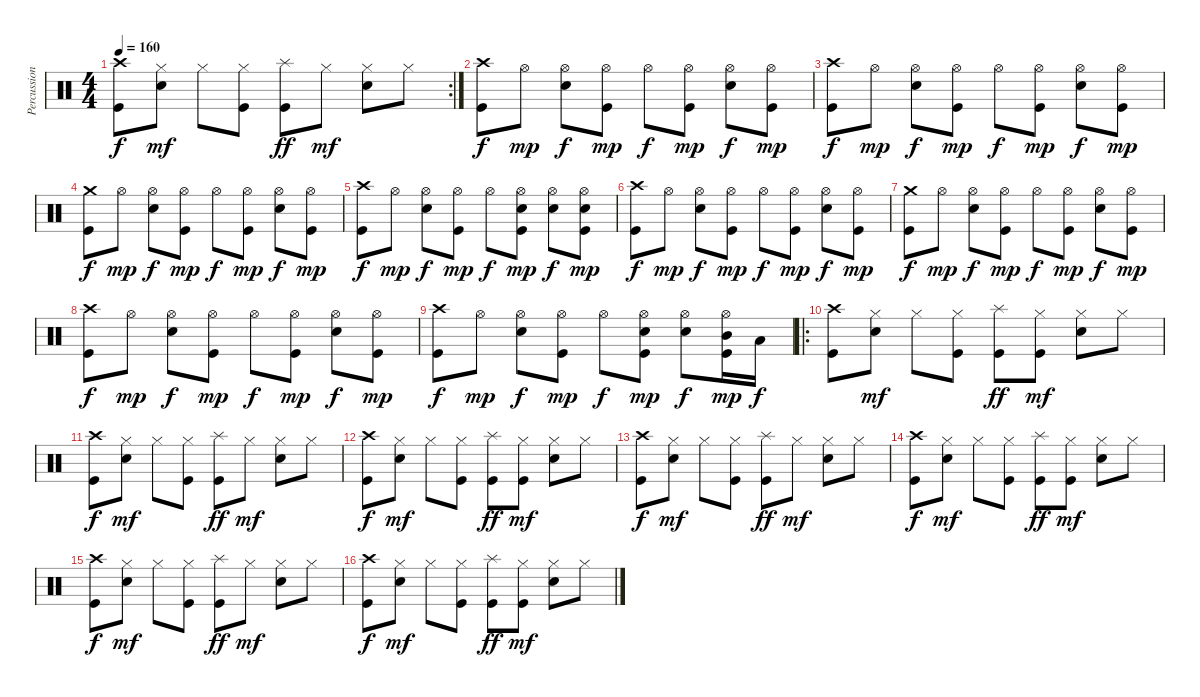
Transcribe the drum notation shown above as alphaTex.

\track ("Percussion" "Percussion") {instrument percussion}
\staff {score}
\articulation defaults
\rc 2
\ts (4 4)
\tempo 160
\clef neutral
\ks c
("Crash high (hit)" "Kick (hit)").8{dy f} ("Hi-Hat (closed)" "Electric Snare (hit)").8{dy mf} "Hi-Hat (closed)".8 ("Hi-Hat (closed)" "Kick (hit)").8 ("Splash (hit)" "Kick (hit)").8{dy ff} "Hi-Hat (closed)".8{dy mf} ("Hi-Hat (closed)" "Electric Snare (hit)").8 "Hi-Hat (closed)".8 |
("Crash high (hit)" "Kick (hit)").8{dy f} "Hi-Hat (open)".8{dy mp} ("Hi-Hat (open)" "Electric Snare (hit)").8{dy f} ("Hi-Hat (open)" "Kick (hit)").8{dy mp} "Hi-Hat (open)".8{dy f} ("Hi-Hat (open)" "Kick (hit)").8{dy mp} ("Hi-Hat (open)" "Electric Snare (hit)").8{dy f} ("Hi-Hat (open)" "Kick (hit)").8{dy mp} |
("Crash high (hit)" "Kick (hit)").8{dy f} "Hi-Hat (open)".8{dy mp} ("Hi-Hat (open)" "Electric Snare (hit)").8{dy f} ("Hi-Hat (open)" "Kick (hit)").8{dy mp} "Hi-Hat (open)".8{dy f} ("Hi-Hat (open)" "Kick (hit)").8{dy mp} ("Hi-Hat (open)" "Electric Snare (hit)").8{dy f} ("Hi-Hat (open)" "Kick (hit)").8{dy mp} |
("Crash medium (hit)" "Kick (hit)").8{dy f} "Hi-Hat (open)".8{dy mp} ("Hi-Hat (open)" "Electric Snare (hit)").8{dy f} ("Hi-Hat (open)" "Kick (hit)").8{dy mp} "Hi-Hat (open)".8{dy f} ("Hi-Hat (open)" "Kick (hit)").8{dy mp} ("Hi-Hat (open)" "Electric Snare (hit)").8{dy f} ("Hi-Hat (open)" "Kick (hit)").8{dy mp} |
("Crash high (hit)" "Kick (hit)").8{dy f} "Hi-Hat (open)".8{dy mp} ("Hi-Hat (open)" "Electric Snare (hit)").8{dy f} ("Hi-Hat (open)" "Kick (hit)").8{dy mp} "Hi-Hat (open)".8{dy f} ("Hi-Hat (open)" "Electric Snare (hit)" "Kick (hit)").8{dy mp} ("Hi-Hat (open)" "Electric Snare (hit)").8{dy f} ("Hi-Hat (open)" "Electric Snare (hit)" "Kick (hit)").8{dy mp} |
("Crash high (hit)" "Kick (hit)").8{dy f} "Hi-Hat (open)".8{dy mp} ("Hi-Hat (open)" "Electric Snare (hit)").8{dy f} ("Hi-Hat (open)" "Kick (hit)").8{dy mp} "Hi-Hat (open)".8{dy f} ("Hi-Hat (open)" "Kick (hit)").8{dy mp} ("Hi-Hat (open)" "Electric Snare (hit)").8{dy f} ("Hi-Hat (open)" "Kick (hit)").8{dy mp} |
("Crash medium (hit)" "Kick (hit)").8{dy f} "Hi-Hat (open)".8{dy mp} ("Hi-Hat (open)" "Electric Snare (hit)").8{dy f} ("Hi-Hat (open)" "Kick (hit)").8{dy mp} "Hi-Hat (open)".8{dy f} ("Hi-Hat (open)" "Kick (hit)").8{dy mp} ("Hi-Hat (open)" "Electric Snare (hit)").8{dy f} ("Hi-Hat (open)" "Kick (hit)").8{dy mp} |
("Crash high (hit)" "Kick (hit)").8{dy f} "Hi-Hat (open)".8{dy mp} ("Hi-Hat (open)" "Electric Snare (hit)").8{dy f} ("Hi-Hat (open)" "Kick (hit)").8{dy mp} "Hi-Hat (open)".8{dy f} ("Hi-Hat (open)" "Kick (hit)").8{dy mp} ("Hi-Hat (open)" "Electric Snare (hit)").8{dy f} ("Hi-Hat (open)" "Kick (hit)").8{dy mp} |
("Crash high (hit)" "Kick (hit)").8{dy f} "Hi-Hat (open)".8{dy mp} ("Hi-Hat (open)" "Electric Snare (hit)").8{dy f} ("Hi-Hat (open)" "Kick (hit)").8{dy mp} "Hi-Hat (open)".8{dy f} ("Hi-Hat (open)" "Electric Snare (hit)" "Kick (hit)").8{dy mp} ("Hi-Hat (open)" "Electric Snare (hit)").8{dy f} ("Hi-Hat (open)" "Mid Tom (hit)" "Kick (hit)").16{dy mp} "Low Tom (hit)".16{dy f} |
\ro
("Crash high (hit)" "Kick (hit)").8 ("Hi-Hat (closed)" "Electric Snare (hit)").8{dy mf} "Hi-Hat (closed)".8 ("Hi-Hat (closed)" "Kick (hit)").8 ("Splash (hit)" "Kick (hit)").8{dy ff} ("Hi-Hat (closed)" "Kick (hit)").8{dy mf} ("Hi-Hat (closed)" "Electric Snare (hit)").8 "Hi-Hat (closed)".8 |
("Crash high (hit)" "Kick (hit)").8{dy f} ("Hi-Hat (closed)" "Electric Snare (hit)").8{dy mf} "Hi-Hat (closed)".8 ("Hi-Hat (closed)" "Kick (hit)").8 ("Splash (hit)" "Kick (hit)").8{dy ff} "Hi-Hat (closed)".8{dy mf} ("Hi-Hat (closed)" "Electric Snare (hit)").8 "Hi-Hat (closed)".8 |
("Crash high (hit)" "Kick (hit)").8{dy f} ("Hi-Hat (closed)" "Electric Snare (hit)").8{dy mf} "Hi-Hat (closed)".8 ("Hi-Hat (closed)" "Kick (hit)").8 ("Splash (hit)" "Kick (hit)").8{dy ff} ("Hi-Hat (closed)" "Kick (hit)").8{dy mf} ("Hi-Hat (closed)" "Electric Snare (hit)").8 "Hi-Hat (closed)".8 |
("Crash high (hit)" "Kick (hit)").8{dy f} ("Hi-Hat (closed)" "Electric Snare (hit)").8{dy mf} "Hi-Hat (closed)".8 ("Hi-Hat (closed)" "Kick (hit)").8 ("Splash (hit)" "Kick (hit)").8{dy ff} "Hi-Hat (closed)".8{dy mf} ("Hi-Hat (closed)" "Electric Snare (hit)").8 "Hi-Hat (closed)".8 |
("Crash high (hit)" "Kick (hit)").8{dy f} ("Hi-Hat (closed)" "Electric Snare (hit)").8{dy mf} "Hi-Hat (closed)".8 ("Hi-Hat (closed)" "Kick (hit)").8 ("Splash (hit)" "Kick (hit)").8{dy ff} ("Hi-Hat (closed)" "Kick (hit)").8{dy mf} ("Hi-Hat (closed)" "Electric Snare (hit)").8 "Hi-Hat (closed)".8 |
("Crash high (hit)" "Kick (hit)").8{dy f} ("Hi-Hat (closed)" "Electric Snare (hit)").8{dy mf} "Hi-Hat (closed)".8 ("Hi-Hat (closed)" "Kick (hit)").8 ("Splash (hit)" "Kick (hit)").8{dy ff} "Hi-Hat (closed)".8{dy mf} ("Hi-Hat (closed)" "Electric Snare (hit)").8 "Hi-Hat (closed)".8 |
("Crash high (hit)" "Kick (hit)").8{dy f} ("Hi-Hat (closed)" "Electric Snare (hit)").8{dy mf} "Hi-Hat (closed)".8 ("Hi-Hat (closed)" "Kick (hit)").8 ("Splash (hit)" "Kick (hit)").8{dy ff} ("Hi-Hat (closed)" "Kick (hit)").8{dy mf} ("Hi-Hat (closed)" "Electric Snare (hit)").8 "Hi-Hat (closed)".8
